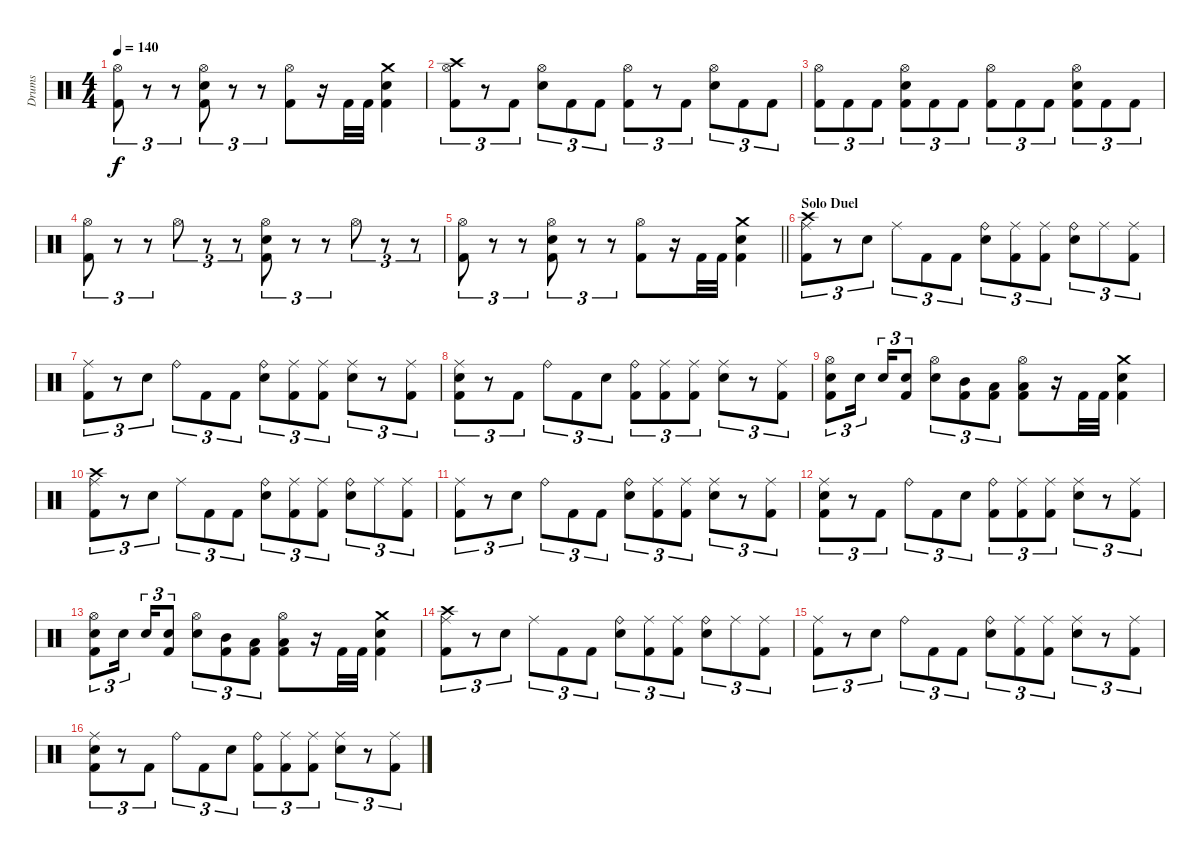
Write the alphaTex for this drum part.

\track ("Drums" "Drums") {instrument percussion}
\staff {score}
\articulation defaults
\ts (4 4)
\tempo 140
\clef neutral
\ks c
("Hi-Hat (open)" "Kick (hit) 2").8{tu (3 2) dy f} r.8{tu (3 2)} r.8{tu (3 2)} ("Hi-Hat (open)" "Snare (hit) 2" "Kick (hit) 2").8{tu (3 2)} r.8{tu (3 2)} r.8{tu (3 2)} ("Hi-Hat (open)" "Kick (hit) 2").8 r.16 "Kick (hit) 2".32 "Kick (hit) 2".32 ("Crash medium (hit)" "Snare (hit) 2" "Kick (hit) 2").4 |
("Crash high (hit)" "Hi-Hat (open)" "Kick (hit) 2").8{tu (3 2)} r.8{tu (3 2)} "Kick (hit) 2".8{tu (3 2)} ("Hi-Hat (open)" "Snare (hit) 2").8{tu (3 2)} "Kick (hit) 2".8{tu (3 2)} "Kick (hit) 2".8{tu (3 2)} ("Hi-Hat (open)" "Kick (hit) 2").8{tu (3 2)} r.8{tu (3 2)} "Kick (hit) 2".8{tu (3 2)} ("Hi-Hat (open)" "Snare (hit) 2").8{tu (3 2)} "Kick (hit) 2".8{tu (3 2)} "Kick (hit) 2".8{tu (3 2)} |
("Hi-Hat (open)" "Kick (hit) 2").8{tu (3 2)} "Kick (hit) 2".8{tu (3 2)} "Kick (hit) 2".8{tu (3 2)} ("Hi-Hat (open)" "Snare (hit) 2" "Kick (hit) 2").8{tu (3 2)} "Kick (hit) 2".8{tu (3 2)} "Kick (hit) 2".8{tu (3 2)} ("Hi-Hat (open)" "Kick (hit) 2").8{tu (3 2)} "Kick (hit) 2".8{tu (3 2)} "Kick (hit) 2".8{tu (3 2)} ("Hi-Hat (open)" "Snare (hit) 2" "Kick (hit) 2").8{tu (3 2)} "Kick (hit) 2".8{tu (3 2)} "Kick (hit) 2".8{tu (3 2)} |
("Hi-Hat (open)" "Kick (hit) 2").8{tu (3 2)} r.8{tu (3 2)} r.8{tu (3 2)} "Hi-Hat (open)".8{tu (3 2)} r.8{tu (3 2)} r.8{tu (3 2)} ("Hi-Hat (open)" "Snare (hit) 2" "Kick (hit) 2").8{tu (3 2)} r.8{tu (3 2)} r.8{tu (3 2)} "Hi-Hat (open)".8{tu (3 2)} r.8{tu (3 2)} r.8{tu (3 2)} |
\barLineRight lightlight
("Hi-Hat (open)" "Kick (hit) 2").8{tu (3 2)} r.8{tu (3 2)} r.8{tu (3 2)} ("Hi-Hat (open)" "Snare (hit) 2" "Kick (hit) 2").8{tu (3 2)} r.8{tu (3 2)} r.8{tu (3 2)} ("Hi-Hat (open)" "Kick (hit) 2").8 r.16 "Kick (hit) 2".32 "Kick (hit) 2".32 ("Crash medium (hit)" "Snare (hit) 2" "Kick (hit) 2").4 |
\section ("" "Solo Duel")
("Crash high (hit)" "Ride (middle)" "Kick (hit) 2").8{tu (3 2)} r.8{tu (3 2)} "Snare (hit) 2".8{tu (3 2)} "Ride (middle)".8{tu (3 2)} "Kick (hit) 2".8{tu (3 2)} "Kick (hit) 2".8{tu (3 2)} ("Ride (bell)" "Snare (hit) 2").8{tu (3 2)} ("Ride (middle)" "Kick (hit) 2").8{tu (3 2)} ("Ride (middle)" "Kick (hit) 2").8{tu (3 2)} ("Ride (bell)" "Snare (hit) 2").8{tu (3 2)} "Ride (middle)".8{tu (3 2)} ("Ride (middle)" "Kick (hit) 2").8{tu (3 2)} |
("Ride (middle)" "Kick (hit) 2").8{tu (3 2)} r.8{tu (3 2)} "Snare (hit) 2".8{tu (3 2)} "Ride (bell)".8{tu (3 2)} "Kick (hit) 2".8{tu (3 2)} "Kick (hit) 2".8{tu (3 2)} ("Ride (bell)" "Snare (hit) 2").8{tu (3 2)} ("Ride (middle)" "Kick (hit) 2").8{tu (3 2)} ("Ride (middle)" "Kick (hit) 2").8{tu (3 2)} ("Ride (middle)" "Snare (hit) 2").8{tu (3 2)} r.8{tu (3 2)} ("Ride (middle)" "Kick (hit) 2").8{tu (3 2)} |
("Ride (middle)" "Snare (hit) 2" "Kick (hit) 2").8{tu (3 2)} r.8{tu (3 2)} "Kick (hit) 2".8{tu (3 2)} "Ride (bell)".8{tu (3 2)} "Kick (hit) 2".8{tu (3 2)} "Snare (hit) 2".8{tu (3 2)} ("Ride (bell)" "Kick (hit) 2").8{tu (3 2)} ("Ride (middle)" "Kick (hit) 2").8{tu (3 2)} ("Ride (middle)" "Kick (hit) 2").8{tu (3 2)} ("Ride (middle)" "Snare (hit) 2").8{tu (3 2)} r.8{tu (3 2)} ("Ride (middle)" "Kick (hit) 2").8{tu (3 2)} |
("Hi-Hat (open)" "Snare (hit) 2" "Kick (hit) 2").8{tu (3 2)} "Snare (hit) 2".16{tu (3 2) beam splitsecondary} "Snare (hit) 2".16{tu (3 2)} ("Snare (hit) 2" "Kick (hit) 2").8{tu (3 2)} ("Hi-Hat (open)" "Snare (hit) 2").8{tu (3 2)} ("Mid Tom (hit)" "Kick (hit) 2").8{tu (3 2)} ("Low Tom (hit)" "Kick (hit) 2").8{tu (3 2)} ("Hi-Hat (open)" "Low Floor Tom (hit)" "Kick (hit) 2").8 r.16 "Kick (hit) 2".32 "Kick (hit) 2".32 ("Crash medium (hit)" "Snare (hit) 2" "Kick (hit) 2").4 |
("Crash high (hit)" "Ride (middle)" "Kick (hit) 2").8{tu (3 2)} r.8{tu (3 2)} "Snare (hit) 2".8{tu (3 2)} "Ride (middle)".8{tu (3 2)} "Kick (hit) 2".8{tu (3 2)} "Kick (hit) 2".8{tu (3 2)} ("Ride (bell)" "Snare (hit) 2").8{tu (3 2)} ("Ride (middle)" "Kick (hit) 2").8{tu (3 2)} ("Ride (middle)" "Kick (hit) 2").8{tu (3 2)} ("Ride (bell)" "Snare (hit) 2").8{tu (3 2)} "Ride (middle)".8{tu (3 2)} ("Ride (middle)" "Kick (hit) 2").8{tu (3 2)} |
("Ride (middle)" "Kick (hit) 2").8{tu (3 2)} r.8{tu (3 2)} "Snare (hit) 2".8{tu (3 2)} "Ride (bell)".8{tu (3 2)} "Kick (hit) 2".8{tu (3 2)} "Kick (hit) 2".8{tu (3 2)} ("Ride (bell)" "Snare (hit) 2").8{tu (3 2)} ("Ride (middle)" "Kick (hit) 2").8{tu (3 2)} ("Ride (middle)" "Kick (hit) 2").8{tu (3 2)} ("Ride (middle)" "Snare (hit) 2").8{tu (3 2)} r.8{tu (3 2)} ("Ride (middle)" "Kick (hit) 2").8{tu (3 2)} |
("Ride (middle)" "Snare (hit) 2" "Kick (hit) 2").8{tu (3 2)} r.8{tu (3 2)} "Kick (hit) 2".8{tu (3 2)} "Ride (bell)".8{tu (3 2)} "Kick (hit) 2".8{tu (3 2)} "Snare (hit) 2".8{tu (3 2)} ("Ride (bell)" "Kick (hit) 2").8{tu (3 2)} ("Ride (middle)" "Kick (hit) 2").8{tu (3 2)} ("Ride (middle)" "Kick (hit) 2").8{tu (3 2)} ("Ride (middle)" "Snare (hit) 2").8{tu (3 2)} r.8{tu (3 2)} ("Ride (middle)" "Kick (hit) 2").8{tu (3 2)} |
("Hi-Hat (open)" "Snare (hit) 2" "Kick (hit) 2").8{tu (3 2)} "Snare (hit) 2".16{tu (3 2) beam splitsecondary} "Snare (hit) 2".16{tu (3 2)} ("Snare (hit) 2" "Kick (hit) 2").8{tu (3 2)} ("Hi-Hat (open)" "Snare (hit) 2").8{tu (3 2)} ("Mid Tom (hit)" "Kick (hit) 2").8{tu (3 2)} ("Low Tom (hit)" "Kick (hit) 2").8{tu (3 2)} ("Hi-Hat (open)" "Low Floor Tom (hit)" "Kick (hit) 2").8 r.16 "Kick (hit) 2".32 "Kick (hit) 2".32 ("Crash medium (hit)" "Snare (hit) 2" "Kick (hit) 2").4 |
("Crash high (hit)" "Ride (middle)" "Kick (hit) 2").8{tu (3 2)} r.8{tu (3 2)} "Snare (hit) 2".8{tu (3 2)} "Ride (middle)".8{tu (3 2)} "Kick (hit) 2".8{tu (3 2)} "Kick (hit) 2".8{tu (3 2)} ("Ride (bell)" "Snare (hit) 2").8{tu (3 2)} ("Ride (middle)" "Kick (hit) 2").8{tu (3 2)} ("Ride (middle)" "Kick (hit) 2").8{tu (3 2)} ("Ride (bell)" "Snare (hit) 2").8{tu (3 2)} "Ride (middle)".8{tu (3 2)} ("Ride (middle)" "Kick (hit) 2").8{tu (3 2)} |
("Ride (middle)" "Kick (hit) 2").8{tu (3 2)} r.8{tu (3 2)} "Snare (hit) 2".8{tu (3 2)} "Ride (bell)".8{tu (3 2)} "Kick (hit) 2".8{tu (3 2)} "Kick (hit) 2".8{tu (3 2)} ("Ride (bell)" "Snare (hit) 2").8{tu (3 2)} ("Ride (middle)" "Kick (hit) 2").8{tu (3 2)} ("Ride (middle)" "Kick (hit) 2").8{tu (3 2)} ("Ride (middle)" "Snare (hit) 2").8{tu (3 2)} r.8{tu (3 2)} ("Ride (middle)" "Kick (hit) 2").8{tu (3 2)} |
("Ride (middle)" "Snare (hit) 2" "Kick (hit) 2").8{tu (3 2)} r.8{tu (3 2)} "Kick (hit) 2".8{tu (3 2)} "Ride (bell)".8{tu (3 2)} "Kick (hit) 2".8{tu (3 2)} "Snare (hit) 2".8{tu (3 2)} ("Ride (bell)" "Kick (hit) 2").8{tu (3 2)} ("Ride (middle)" "Kick (hit) 2").8{tu (3 2)} ("Ride (middle)" "Kick (hit) 2").8{tu (3 2)} ("Ride (middle)" "Snare (hit) 2").8{tu (3 2)} r.8{tu (3 2)} ("Ride (middle)" "Kick (hit) 2").8{tu (3 2)}
